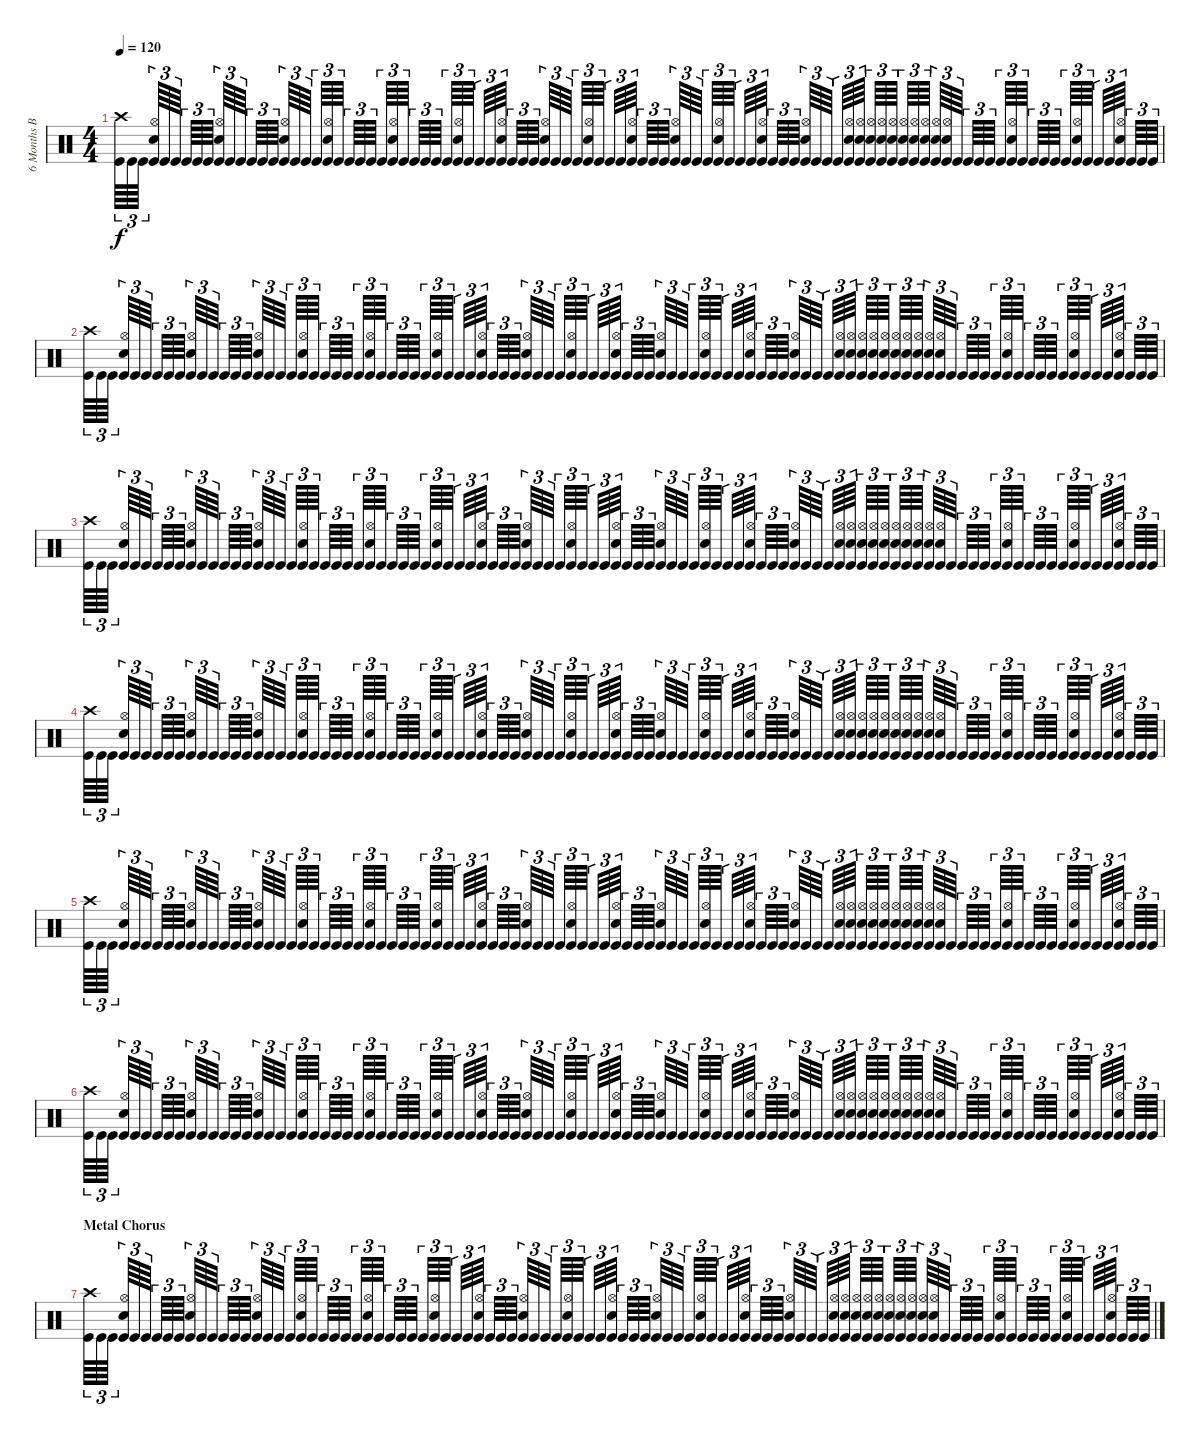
\track ("6 Months Baby" "6 Months B") {instrument percussion}
\staff {score}
\articulation defaults
\ts (4 4)
\tempo 120
\clef neutral
\ks c
("Crash high (hit)" "Kick (hit)").64{tu (3 2) dy f} "Kick (hit)".64{tu (3 2)} "Kick (hit)".64{tu (3 2)} ("Hi-Hat (open)" "Snare (hit) 2" "Kick (hit)").64{tu (3 2)} "Kick (hit)".64{tu (3 2)} "Kick (hit)".64{tu (3 2)} "Kick (hit)".64{tu (3 2)} "Kick (hit)".64{tu (3 2)} "Kick (hit)".64{tu (3 2)} ("Hi-Hat (open)" "Snare (hit) 2" "Kick (hit)").64{tu (3 2)} "Kick (hit)".64{tu (3 2)} "Kick (hit)".64{tu (3 2)} "Kick (hit)".64{tu (3 2)} "Kick (hit)".64{tu (3 2)} "Kick (hit)".64{tu (3 2)} ("Hi-Hat (open)" "Snare (hit) 2" "Kick (hit)").64{tu (3 2)} "Kick (hit)".64{tu (3 2)} "Kick (hit)".64{tu (3 2)} "Kick (hit)".64{tu (3 2)} ("Hi-Hat (open)" "Snare (hit) 2" "Kick (hit)").64{tu (3 2)} "Kick (hit)".64{tu (3 2)} "Kick (hit)".64{tu (3 2)} "Kick (hit)".64{tu (3 2)} "Kick (hit)".64{tu (3 2)} "Kick (hit)".64{tu (3 2)} ("Hi-Hat (open)" "Snare (hit) 2" "Kick (hit)").64{tu (3 2)} "Kick (hit)".64{tu (3 2)} "Kick (hit)".64{tu (3 2)} "Kick (hit)".64{tu (3 2)} "Kick (hit)".64{tu (3 2)} "Kick (hit)".64{tu (3 2)} ("Hi-Hat (open)" "Snare (hit) 2" "Kick (hit)").64{tu (3 2)} "Kick (hit)".64{tu (3 2)} "Kick (hit)".64{tu (3 2)} "Kick (hit)".64{tu (3 2)} ("Hi-Hat (open)" "Snare (hit) 2" "Kick (hit)").64{tu (3 2)} "Kick (hit)".64{tu (3 2)} "Kick (hit)".64{tu (3 2)} "Kick (hit)".64{tu (3 2)} ("Hi-Hat (open)" "Snare (hit) 2" "Kick (hit)").64{tu (3 2)} "Kick (hit)".64{tu (3 2)} "Kick (hit)".64{tu (3 2)} "Kick (hit)".64{tu (3 2)} ("Hi-Hat (open)" "Snare (hit) 2" "Kick (hit)").64{tu (3 2)} "Kick (hit)".64{tu (3 2)} "Kick (hit)".64{tu (3 2)} "Kick (hit)".64{tu (3 2)} ("Hi-Hat (open)" "Snare (hit) 2" "Kick (hit)").64{tu (3 2)} "Kick (hit)".64{tu (3 2)} "Kick (hit)".64{tu (3 2)} "Kick (hit)".64{tu (3 2)} ("Hi-Hat (open)" "Snare (hit) 2" "Kick (hit)").64{tu (3 2)} "Kick (hit)".64{tu (3 2)} "Kick (hit)".64{tu (3 2)} "Kick (hit)".64{tu (3 2)} ("Hi-Hat (open)" "Snare (hit) 2" "Kick (hit)").64{tu (3 2)} "Kick (hit)".64{tu (3 2)} "Kick (hit)".64{tu (3 2)} "Kick (hit)".64{tu (3 2)} ("Hi-Hat (open)" "Snare (hit) 2" "Kick (hit)").64{tu (3 2)} "Kick (hit)".64{tu (3 2)} "Kick (hit)".64{tu (3 2)} "Kick (hit)".64{tu (3 2)} ("Hi-Hat (open)" "Snare (hit) 2" "Kick (hit)").64{tu (3 2)} "Kick (hit)".64{tu (3 2)} "Kick (hit)".64{tu (3 2)} "Kick (hit)".64{tu (3 2)} ("Hi-Hat (open)" "Snare (hit) 2" "Kick (hit)").64{tu (3 2)} ("Hi-Hat (open)" "Snare (hit) 2" "Kick (hit)").64{tu (3 2)} ("Hi-Hat (open)" "Snare (hit) 2" "Kick (hit)").64{tu (3 2)} ("Hi-Hat (open)" "Snare (hit) 2" "Kick (hit)").64{tu (3 2)} ("Hi-Hat (open)" "Snare (hit) 2" "Kick (hit)").64{tu (3 2)} ("Hi-Hat (open)" "Snare (hit) 2" "Kick (hit)").64{tu (3 2)} ("Hi-Hat (open)" "Snare (hit) 2" "Kick (hit)").64{tu (3 2)} ("Hi-Hat (open)" "Snare (hit) 2" "Kick (hit)").64{tu (3 2)} ("Hi-Hat (open)" "Snare (hit) 2" "Kick (hit)").64{tu (3 2)} ("Hi-Hat (open)" "Snare (hit) 2" "Kick (hit)").64{tu (3 2)} "Kick (hit)".64{tu (3 2)} "Kick (hit)".64{tu (3 2)} "Kick (hit)".64{tu (3 2)} "Kick (hit)".64{tu (3 2)} "Kick (hit)".64{tu (3 2)} ("Hi-Hat (open)" "Snare (hit) 2" "Kick (hit)").64{tu (3 2)} "Kick (hit)".64{tu (3 2)} "Kick (hit)".64{tu (3 2)} "Kick (hit)".64{tu (3 2)} "Kick (hit)".64{tu (3 2)} "Kick (hit)".64{tu (3 2)} ("Hi-Hat (open)" "Snare (hit) 2" "Kick (hit)").64{tu (3 2)} "Kick (hit)".64{tu (3 2)} "Kick (hit)".64{tu (3 2)} "Kick (hit)".64{tu (3 2)} ("Hi-Hat (open)" "Snare (hit) 2" "Kick (hit)").64{tu (3 2)} "Kick (hit)".64{tu (3 2)} "Kick (hit)".64{tu (3 2)} "Kick (hit)".64{tu (3 2)} |
("Crash high (hit)" "Kick (hit)").64{tu (3 2)} "Kick (hit)".64{tu (3 2)} "Kick (hit)".64{tu (3 2)} ("Hi-Hat (open)" "Snare (hit) 2" "Kick (hit)").64{tu (3 2)} "Kick (hit)".64{tu (3 2)} "Kick (hit)".64{tu (3 2)} "Kick (hit)".64{tu (3 2)} "Kick (hit)".64{tu (3 2)} "Kick (hit)".64{tu (3 2)} ("Hi-Hat (open)" "Snare (hit) 2" "Kick (hit)").64{tu (3 2)} "Kick (hit)".64{tu (3 2)} "Kick (hit)".64{tu (3 2)} "Kick (hit)".64{tu (3 2)} "Kick (hit)".64{tu (3 2)} "Kick (hit)".64{tu (3 2)} ("Hi-Hat (open)" "Snare (hit) 2" "Kick (hit)").64{tu (3 2)} "Kick (hit)".64{tu (3 2)} "Kick (hit)".64{tu (3 2)} "Kick (hit)".64{tu (3 2)} ("Hi-Hat (open)" "Snare (hit) 2" "Kick (hit)").64{tu (3 2)} "Kick (hit)".64{tu (3 2)} "Kick (hit)".64{tu (3 2)} "Kick (hit)".64{tu (3 2)} "Kick (hit)".64{tu (3 2)} "Kick (hit)".64{tu (3 2)} ("Hi-Hat (open)" "Snare (hit) 2" "Kick (hit)").64{tu (3 2)} "Kick (hit)".64{tu (3 2)} "Kick (hit)".64{tu (3 2)} "Kick (hit)".64{tu (3 2)} "Kick (hit)".64{tu (3 2)} "Kick (hit)".64{tu (3 2)} ("Hi-Hat (open)" "Snare (hit) 2" "Kick (hit)").64{tu (3 2)} "Kick (hit)".64{tu (3 2)} "Kick (hit)".64{tu (3 2)} "Kick (hit)".64{tu (3 2)} ("Hi-Hat (open)" "Snare (hit) 2" "Kick (hit)").64{tu (3 2)} "Kick (hit)".64{tu (3 2)} "Kick (hit)".64{tu (3 2)} "Kick (hit)".64{tu (3 2)} ("Hi-Hat (open)" "Snare (hit) 2" "Kick (hit)").64{tu (3 2)} "Kick (hit)".64{tu (3 2)} "Kick (hit)".64{tu (3 2)} "Kick (hit)".64{tu (3 2)} ("Hi-Hat (open)" "Snare (hit) 2" "Kick (hit)").64{tu (3 2)} "Kick (hit)".64{tu (3 2)} "Kick (hit)".64{tu (3 2)} "Kick (hit)".64{tu (3 2)} ("Hi-Hat (open)" "Snare (hit) 2" "Kick (hit)").64{tu (3 2)} "Kick (hit)".64{tu (3 2)} "Kick (hit)".64{tu (3 2)} "Kick (hit)".64{tu (3 2)} ("Hi-Hat (open)" "Snare (hit) 2" "Kick (hit)").64{tu (3 2)} "Kick (hit)".64{tu (3 2)} "Kick (hit)".64{tu (3 2)} "Kick (hit)".64{tu (3 2)} ("Hi-Hat (open)" "Snare (hit) 2" "Kick (hit)").64{tu (3 2)} "Kick (hit)".64{tu (3 2)} "Kick (hit)".64{tu (3 2)} "Kick (hit)".64{tu (3 2)} ("Hi-Hat (open)" "Snare (hit) 2" "Kick (hit)").64{tu (3 2)} "Kick (hit)".64{tu (3 2)} "Kick (hit)".64{tu (3 2)} "Kick (hit)".64{tu (3 2)} ("Hi-Hat (open)" "Snare (hit) 2" "Kick (hit)").64{tu (3 2)} "Kick (hit)".64{tu (3 2)} "Kick (hit)".64{tu (3 2)} "Kick (hit)".64{tu (3 2)} ("Hi-Hat (open)" "Snare (hit) 2" "Kick (hit)").64{tu (3 2)} ("Hi-Hat (open)" "Snare (hit) 2" "Kick (hit)").64{tu (3 2)} ("Hi-Hat (open)" "Snare (hit) 2" "Kick (hit)").64{tu (3 2)} ("Hi-Hat (open)" "Snare (hit) 2" "Kick (hit)").64{tu (3 2)} ("Hi-Hat (open)" "Snare (hit) 2" "Kick (hit)").64{tu (3 2)} ("Hi-Hat (open)" "Snare (hit) 2" "Kick (hit)").64{tu (3 2)} ("Hi-Hat (open)" "Snare (hit) 2" "Kick (hit)").64{tu (3 2)} ("Hi-Hat (open)" "Snare (hit) 2" "Kick (hit)").64{tu (3 2)} ("Hi-Hat (open)" "Snare (hit) 2" "Kick (hit)").64{tu (3 2)} ("Hi-Hat (open)" "Snare (hit) 2" "Kick (hit)").64{tu (3 2)} "Kick (hit)".64{tu (3 2)} "Kick (hit)".64{tu (3 2)} "Kick (hit)".64{tu (3 2)} "Kick (hit)".64{tu (3 2)} "Kick (hit)".64{tu (3 2)} ("Hi-Hat (open)" "Snare (hit) 2" "Kick (hit)").64{tu (3 2)} "Kick (hit)".64{tu (3 2)} "Kick (hit)".64{tu (3 2)} "Kick (hit)".64{tu (3 2)} "Kick (hit)".64{tu (3 2)} "Kick (hit)".64{tu (3 2)} ("Hi-Hat (open)" "Snare (hit) 2" "Kick (hit)").64{tu (3 2)} "Kick (hit)".64{tu (3 2)} "Kick (hit)".64{tu (3 2)} "Kick (hit)".64{tu (3 2)} ("Hi-Hat (open)" "Snare (hit) 2" "Kick (hit)").64{tu (3 2)} "Kick (hit)".64{tu (3 2)} "Kick (hit)".64{tu (3 2)} "Kick (hit)".64{tu (3 2)} |
("Crash high (hit)" "Kick (hit)").64{tu (3 2)} "Kick (hit)".64{tu (3 2)} "Kick (hit)".64{tu (3 2)} ("Hi-Hat (open)" "Snare (hit) 2" "Kick (hit)").64{tu (3 2)} "Kick (hit)".64{tu (3 2)} "Kick (hit)".64{tu (3 2)} "Kick (hit)".64{tu (3 2)} "Kick (hit)".64{tu (3 2)} "Kick (hit)".64{tu (3 2)} ("Hi-Hat (open)" "Snare (hit) 2" "Kick (hit)").64{tu (3 2)} "Kick (hit)".64{tu (3 2)} "Kick (hit)".64{tu (3 2)} "Kick (hit)".64{tu (3 2)} "Kick (hit)".64{tu (3 2)} "Kick (hit)".64{tu (3 2)} ("Hi-Hat (open)" "Snare (hit) 2" "Kick (hit)").64{tu (3 2)} "Kick (hit)".64{tu (3 2)} "Kick (hit)".64{tu (3 2)} "Kick (hit)".64{tu (3 2)} ("Hi-Hat (open)" "Snare (hit) 2" "Kick (hit)").64{tu (3 2)} "Kick (hit)".64{tu (3 2)} "Kick (hit)".64{tu (3 2)} "Kick (hit)".64{tu (3 2)} "Kick (hit)".64{tu (3 2)} "Kick (hit)".64{tu (3 2)} ("Hi-Hat (open)" "Snare (hit) 2" "Kick (hit)").64{tu (3 2)} "Kick (hit)".64{tu (3 2)} "Kick (hit)".64{tu (3 2)} "Kick (hit)".64{tu (3 2)} "Kick (hit)".64{tu (3 2)} "Kick (hit)".64{tu (3 2)} ("Hi-Hat (open)" "Snare (hit) 2" "Kick (hit)").64{tu (3 2)} "Kick (hit)".64{tu (3 2)} "Kick (hit)".64{tu (3 2)} "Kick (hit)".64{tu (3 2)} ("Hi-Hat (open)" "Snare (hit) 2" "Kick (hit)").64{tu (3 2)} "Kick (hit)".64{tu (3 2)} "Kick (hit)".64{tu (3 2)} "Kick (hit)".64{tu (3 2)} ("Hi-Hat (open)" "Snare (hit) 2" "Kick (hit)").64{tu (3 2)} "Kick (hit)".64{tu (3 2)} "Kick (hit)".64{tu (3 2)} "Kick (hit)".64{tu (3 2)} ("Hi-Hat (open)" "Snare (hit) 2" "Kick (hit)").64{tu (3 2)} "Kick (hit)".64{tu (3 2)} "Kick (hit)".64{tu (3 2)} "Kick (hit)".64{tu (3 2)} ("Hi-Hat (open)" "Snare (hit) 2" "Kick (hit)").64{tu (3 2)} "Kick (hit)".64{tu (3 2)} "Kick (hit)".64{tu (3 2)} "Kick (hit)".64{tu (3 2)} ("Hi-Hat (open)" "Snare (hit) 2" "Kick (hit)").64{tu (3 2)} "Kick (hit)".64{tu (3 2)} "Kick (hit)".64{tu (3 2)} "Kick (hit)".64{tu (3 2)} ("Hi-Hat (open)" "Snare (hit) 2" "Kick (hit)").64{tu (3 2)} "Kick (hit)".64{tu (3 2)} "Kick (hit)".64{tu (3 2)} "Kick (hit)".64{tu (3 2)} ("Hi-Hat (open)" "Snare (hit) 2" "Kick (hit)").64{tu (3 2)} "Kick (hit)".64{tu (3 2)} "Kick (hit)".64{tu (3 2)} "Kick (hit)".64{tu (3 2)} ("Hi-Hat (open)" "Snare (hit) 2" "Kick (hit)").64{tu (3 2)} "Kick (hit)".64{tu (3 2)} "Kick (hit)".64{tu (3 2)} "Kick (hit)".64{tu (3 2)} ("Hi-Hat (open)" "Snare (hit) 2" "Kick (hit)").64{tu (3 2)} ("Hi-Hat (open)" "Snare (hit) 2" "Kick (hit)").64{tu (3 2)} ("Hi-Hat (open)" "Snare (hit) 2" "Kick (hit)").64{tu (3 2)} ("Hi-Hat (open)" "Snare (hit) 2" "Kick (hit)").64{tu (3 2)} ("Hi-Hat (open)" "Snare (hit) 2" "Kick (hit)").64{tu (3 2)} ("Hi-Hat (open)" "Snare (hit) 2" "Kick (hit)").64{tu (3 2)} ("Hi-Hat (open)" "Snare (hit) 2" "Kick (hit)").64{tu (3 2)} ("Hi-Hat (open)" "Snare (hit) 2" "Kick (hit)").64{tu (3 2)} ("Hi-Hat (open)" "Snare (hit) 2" "Kick (hit)").64{tu (3 2)} ("Hi-Hat (open)" "Snare (hit) 2" "Kick (hit)").64{tu (3 2)} "Kick (hit)".64{tu (3 2)} "Kick (hit)".64{tu (3 2)} "Kick (hit)".64{tu (3 2)} "Kick (hit)".64{tu (3 2)} "Kick (hit)".64{tu (3 2)} ("Hi-Hat (open)" "Snare (hit) 2" "Kick (hit)").64{tu (3 2)} "Kick (hit)".64{tu (3 2)} "Kick (hit)".64{tu (3 2)} "Kick (hit)".64{tu (3 2)} "Kick (hit)".64{tu (3 2)} "Kick (hit)".64{tu (3 2)} ("Hi-Hat (open)" "Snare (hit) 2" "Kick (hit)").64{tu (3 2)} "Kick (hit)".64{tu (3 2)} "Kick (hit)".64{tu (3 2)} "Kick (hit)".64{tu (3 2)} ("Hi-Hat (open)" "Snare (hit) 2" "Kick (hit)").64{tu (3 2)} "Kick (hit)".64{tu (3 2)} "Kick (hit)".64{tu (3 2)} "Kick (hit)".64{tu (3 2)} |
("Crash high (hit)" "Kick (hit)").64{tu (3 2)} "Kick (hit)".64{tu (3 2)} "Kick (hit)".64{tu (3 2)} ("Hi-Hat (open)" "Snare (hit) 2" "Kick (hit)").64{tu (3 2)} "Kick (hit)".64{tu (3 2)} "Kick (hit)".64{tu (3 2)} "Kick (hit)".64{tu (3 2)} "Kick (hit)".64{tu (3 2)} "Kick (hit)".64{tu (3 2)} ("Hi-Hat (open)" "Snare (hit) 2" "Kick (hit)").64{tu (3 2)} "Kick (hit)".64{tu (3 2)} "Kick (hit)".64{tu (3 2)} "Kick (hit)".64{tu (3 2)} "Kick (hit)".64{tu (3 2)} "Kick (hit)".64{tu (3 2)} ("Hi-Hat (open)" "Snare (hit) 2" "Kick (hit)").64{tu (3 2)} "Kick (hit)".64{tu (3 2)} "Kick (hit)".64{tu (3 2)} "Kick (hit)".64{tu (3 2)} ("Hi-Hat (open)" "Snare (hit) 2" "Kick (hit)").64{tu (3 2)} "Kick (hit)".64{tu (3 2)} "Kick (hit)".64{tu (3 2)} "Kick (hit)".64{tu (3 2)} "Kick (hit)".64{tu (3 2)} "Kick (hit)".64{tu (3 2)} ("Hi-Hat (open)" "Snare (hit) 2" "Kick (hit)").64{tu (3 2)} "Kick (hit)".64{tu (3 2)} "Kick (hit)".64{tu (3 2)} "Kick (hit)".64{tu (3 2)} "Kick (hit)".64{tu (3 2)} "Kick (hit)".64{tu (3 2)} ("Hi-Hat (open)" "Snare (hit) 2" "Kick (hit)").64{tu (3 2)} "Kick (hit)".64{tu (3 2)} "Kick (hit)".64{tu (3 2)} "Kick (hit)".64{tu (3 2)} ("Hi-Hat (open)" "Snare (hit) 2" "Kick (hit)").64{tu (3 2)} "Kick (hit)".64{tu (3 2)} "Kick (hit)".64{tu (3 2)} "Kick (hit)".64{tu (3 2)} ("Hi-Hat (open)" "Snare (hit) 2" "Kick (hit)").64{tu (3 2)} "Kick (hit)".64{tu (3 2)} "Kick (hit)".64{tu (3 2)} "Kick (hit)".64{tu (3 2)} ("Hi-Hat (open)" "Snare (hit) 2" "Kick (hit)").64{tu (3 2)} "Kick (hit)".64{tu (3 2)} "Kick (hit)".64{tu (3 2)} "Kick (hit)".64{tu (3 2)} ("Hi-Hat (open)" "Snare (hit) 2" "Kick (hit)").64{tu (3 2)} "Kick (hit)".64{tu (3 2)} "Kick (hit)".64{tu (3 2)} "Kick (hit)".64{tu (3 2)} ("Hi-Hat (open)" "Snare (hit) 2" "Kick (hit)").64{tu (3 2)} "Kick (hit)".64{tu (3 2)} "Kick (hit)".64{tu (3 2)} "Kick (hit)".64{tu (3 2)} ("Hi-Hat (open)" "Snare (hit) 2" "Kick (hit)").64{tu (3 2)} "Kick (hit)".64{tu (3 2)} "Kick (hit)".64{tu (3 2)} "Kick (hit)".64{tu (3 2)} ("Hi-Hat (open)" "Snare (hit) 2" "Kick (hit)").64{tu (3 2)} "Kick (hit)".64{tu (3 2)} "Kick (hit)".64{tu (3 2)} "Kick (hit)".64{tu (3 2)} ("Hi-Hat (open)" "Snare (hit) 2" "Kick (hit)").64{tu (3 2)} "Kick (hit)".64{tu (3 2)} "Kick (hit)".64{tu (3 2)} "Kick (hit)".64{tu (3 2)} ("Hi-Hat (open)" "Snare (hit) 2" "Kick (hit)").64{tu (3 2)} ("Hi-Hat (open)" "Snare (hit) 2" "Kick (hit)").64{tu (3 2)} ("Hi-Hat (open)" "Snare (hit) 2" "Kick (hit)").64{tu (3 2)} ("Hi-Hat (open)" "Snare (hit) 2" "Kick (hit)").64{tu (3 2)} ("Hi-Hat (open)" "Snare (hit) 2" "Kick (hit)").64{tu (3 2)} ("Hi-Hat (open)" "Snare (hit) 2" "Kick (hit)").64{tu (3 2)} ("Hi-Hat (open)" "Snare (hit) 2" "Kick (hit)").64{tu (3 2)} ("Hi-Hat (open)" "Snare (hit) 2" "Kick (hit)").64{tu (3 2)} ("Hi-Hat (open)" "Snare (hit) 2" "Kick (hit)").64{tu (3 2)} ("Hi-Hat (open)" "Snare (hit) 2" "Kick (hit)").64{tu (3 2)} "Kick (hit)".64{tu (3 2)} "Kick (hit)".64{tu (3 2)} "Kick (hit)".64{tu (3 2)} "Kick (hit)".64{tu (3 2)} "Kick (hit)".64{tu (3 2)} ("Hi-Hat (open)" "Snare (hit) 2" "Kick (hit)").64{tu (3 2)} "Kick (hit)".64{tu (3 2)} "Kick (hit)".64{tu (3 2)} "Kick (hit)".64{tu (3 2)} "Kick (hit)".64{tu (3 2)} "Kick (hit)".64{tu (3 2)} ("Hi-Hat (open)" "Snare (hit) 2" "Kick (hit)").64{tu (3 2)} "Kick (hit)".64{tu (3 2)} "Kick (hit)".64{tu (3 2)} "Kick (hit)".64{tu (3 2)} ("Hi-Hat (open)" "Snare (hit) 2" "Kick (hit)").64{tu (3 2)} "Kick (hit)".64{tu (3 2)} "Kick (hit)".64{tu (3 2)} "Kick (hit)".64{tu (3 2)} |
("Crash high (hit)" "Kick (hit)").64{tu (3 2)} "Kick (hit)".64{tu (3 2)} "Kick (hit)".64{tu (3 2)} ("Hi-Hat (open)" "Snare (hit) 2" "Kick (hit)").64{tu (3 2)} "Kick (hit)".64{tu (3 2)} "Kick (hit)".64{tu (3 2)} "Kick (hit)".64{tu (3 2)} "Kick (hit)".64{tu (3 2)} "Kick (hit)".64{tu (3 2)} ("Hi-Hat (open)" "Snare (hit) 2" "Kick (hit)").64{tu (3 2)} "Kick (hit)".64{tu (3 2)} "Kick (hit)".64{tu (3 2)} "Kick (hit)".64{tu (3 2)} "Kick (hit)".64{tu (3 2)} "Kick (hit)".64{tu (3 2)} ("Hi-Hat (open)" "Snare (hit) 2" "Kick (hit)").64{tu (3 2)} "Kick (hit)".64{tu (3 2)} "Kick (hit)".64{tu (3 2)} "Kick (hit)".64{tu (3 2)} ("Hi-Hat (open)" "Snare (hit) 2" "Kick (hit)").64{tu (3 2)} "Kick (hit)".64{tu (3 2)} "Kick (hit)".64{tu (3 2)} "Kick (hit)".64{tu (3 2)} "Kick (hit)".64{tu (3 2)} "Kick (hit)".64{tu (3 2)} ("Hi-Hat (open)" "Snare (hit) 2" "Kick (hit)").64{tu (3 2)} "Kick (hit)".64{tu (3 2)} "Kick (hit)".64{tu (3 2)} "Kick (hit)".64{tu (3 2)} "Kick (hit)".64{tu (3 2)} "Kick (hit)".64{tu (3 2)} ("Hi-Hat (open)" "Snare (hit) 2" "Kick (hit)").64{tu (3 2)} "Kick (hit)".64{tu (3 2)} "Kick (hit)".64{tu (3 2)} "Kick (hit)".64{tu (3 2)} ("Hi-Hat (open)" "Snare (hit) 2" "Kick (hit)").64{tu (3 2)} "Kick (hit)".64{tu (3 2)} "Kick (hit)".64{tu (3 2)} "Kick (hit)".64{tu (3 2)} ("Hi-Hat (open)" "Snare (hit) 2" "Kick (hit)").64{tu (3 2)} "Kick (hit)".64{tu (3 2)} "Kick (hit)".64{tu (3 2)} "Kick (hit)".64{tu (3 2)} ("Hi-Hat (open)" "Snare (hit) 2" "Kick (hit)").64{tu (3 2)} "Kick (hit)".64{tu (3 2)} "Kick (hit)".64{tu (3 2)} "Kick (hit)".64{tu (3 2)} ("Hi-Hat (open)" "Snare (hit) 2" "Kick (hit)").64{tu (3 2)} "Kick (hit)".64{tu (3 2)} "Kick (hit)".64{tu (3 2)} "Kick (hit)".64{tu (3 2)} ("Hi-Hat (open)" "Snare (hit) 2" "Kick (hit)").64{tu (3 2)} "Kick (hit)".64{tu (3 2)} "Kick (hit)".64{tu (3 2)} "Kick (hit)".64{tu (3 2)} ("Hi-Hat (open)" "Snare (hit) 2" "Kick (hit)").64{tu (3 2)} "Kick (hit)".64{tu (3 2)} "Kick (hit)".64{tu (3 2)} "Kick (hit)".64{tu (3 2)} ("Hi-Hat (open)" "Snare (hit) 2" "Kick (hit)").64{tu (3 2)} "Kick (hit)".64{tu (3 2)} "Kick (hit)".64{tu (3 2)} "Kick (hit)".64{tu (3 2)} ("Hi-Hat (open)" "Snare (hit) 2" "Kick (hit)").64{tu (3 2)} "Kick (hit)".64{tu (3 2)} "Kick (hit)".64{tu (3 2)} "Kick (hit)".64{tu (3 2)} ("Hi-Hat (open)" "Snare (hit) 2" "Kick (hit)").64{tu (3 2)} ("Hi-Hat (open)" "Snare (hit) 2" "Kick (hit)").64{tu (3 2)} ("Hi-Hat (open)" "Snare (hit) 2" "Kick (hit)").64{tu (3 2)} ("Hi-Hat (open)" "Snare (hit) 2" "Kick (hit)").64{tu (3 2)} ("Hi-Hat (open)" "Snare (hit) 2" "Kick (hit)").64{tu (3 2)} ("Hi-Hat (open)" "Snare (hit) 2" "Kick (hit)").64{tu (3 2)} ("Hi-Hat (open)" "Snare (hit) 2" "Kick (hit)").64{tu (3 2)} ("Hi-Hat (open)" "Snare (hit) 2" "Kick (hit)").64{tu (3 2)} ("Hi-Hat (open)" "Snare (hit) 2" "Kick (hit)").64{tu (3 2)} ("Hi-Hat (open)" "Snare (hit) 2" "Kick (hit)").64{tu (3 2)} "Kick (hit)".64{tu (3 2)} "Kick (hit)".64{tu (3 2)} "Kick (hit)".64{tu (3 2)} "Kick (hit)".64{tu (3 2)} "Kick (hit)".64{tu (3 2)} ("Hi-Hat (open)" "Snare (hit) 2" "Kick (hit)").64{tu (3 2)} "Kick (hit)".64{tu (3 2)} "Kick (hit)".64{tu (3 2)} "Kick (hit)".64{tu (3 2)} "Kick (hit)".64{tu (3 2)} "Kick (hit)".64{tu (3 2)} ("Hi-Hat (open)" "Snare (hit) 2" "Kick (hit)").64{tu (3 2)} "Kick (hit)".64{tu (3 2)} "Kick (hit)".64{tu (3 2)} "Kick (hit)".64{tu (3 2)} ("Hi-Hat (open)" "Snare (hit) 2" "Kick (hit)").64{tu (3 2)} "Kick (hit)".64{tu (3 2)} "Kick (hit)".64{tu (3 2)} "Kick (hit)".64{tu (3 2)} |
("Crash high (hit)" "Kick (hit)").64{tu (3 2)} "Kick (hit)".64{tu (3 2)} "Kick (hit)".64{tu (3 2)} ("Hi-Hat (open)" "Snare (hit) 2" "Kick (hit)").64{tu (3 2)} "Kick (hit)".64{tu (3 2)} "Kick (hit)".64{tu (3 2)} "Kick (hit)".64{tu (3 2)} "Kick (hit)".64{tu (3 2)} "Kick (hit)".64{tu (3 2)} ("Hi-Hat (open)" "Snare (hit) 2" "Kick (hit)").64{tu (3 2)} "Kick (hit)".64{tu (3 2)} "Kick (hit)".64{tu (3 2)} "Kick (hit)".64{tu (3 2)} "Kick (hit)".64{tu (3 2)} "Kick (hit)".64{tu (3 2)} ("Hi-Hat (open)" "Snare (hit) 2" "Kick (hit)").64{tu (3 2)} "Kick (hit)".64{tu (3 2)} "Kick (hit)".64{tu (3 2)} "Kick (hit)".64{tu (3 2)} ("Hi-Hat (open)" "Snare (hit) 2" "Kick (hit)").64{tu (3 2)} "Kick (hit)".64{tu (3 2)} "Kick (hit)".64{tu (3 2)} "Kick (hit)".64{tu (3 2)} "Kick (hit)".64{tu (3 2)} "Kick (hit)".64{tu (3 2)} ("Hi-Hat (open)" "Snare (hit) 2" "Kick (hit)").64{tu (3 2)} "Kick (hit)".64{tu (3 2)} "Kick (hit)".64{tu (3 2)} "Kick (hit)".64{tu (3 2)} "Kick (hit)".64{tu (3 2)} "Kick (hit)".64{tu (3 2)} ("Hi-Hat (open)" "Snare (hit) 2" "Kick (hit)").64{tu (3 2)} "Kick (hit)".64{tu (3 2)} "Kick (hit)".64{tu (3 2)} "Kick (hit)".64{tu (3 2)} ("Hi-Hat (open)" "Snare (hit) 2" "Kick (hit)").64{tu (3 2)} "Kick (hit)".64{tu (3 2)} "Kick (hit)".64{tu (3 2)} "Kick (hit)".64{tu (3 2)} ("Hi-Hat (open)" "Snare (hit) 2" "Kick (hit)").64{tu (3 2)} "Kick (hit)".64{tu (3 2)} "Kick (hit)".64{tu (3 2)} "Kick (hit)".64{tu (3 2)} ("Hi-Hat (open)" "Snare (hit) 2" "Kick (hit)").64{tu (3 2)} "Kick (hit)".64{tu (3 2)} "Kick (hit)".64{tu (3 2)} "Kick (hit)".64{tu (3 2)} ("Hi-Hat (open)" "Snare (hit) 2" "Kick (hit)").64{tu (3 2)} "Kick (hit)".64{tu (3 2)} "Kick (hit)".64{tu (3 2)} "Kick (hit)".64{tu (3 2)} ("Hi-Hat (open)" "Snare (hit) 2" "Kick (hit)").64{tu (3 2)} "Kick (hit)".64{tu (3 2)} "Kick (hit)".64{tu (3 2)} "Kick (hit)".64{tu (3 2)} ("Hi-Hat (open)" "Snare (hit) 2" "Kick (hit)").64{tu (3 2)} "Kick (hit)".64{tu (3 2)} "Kick (hit)".64{tu (3 2)} "Kick (hit)".64{tu (3 2)} ("Hi-Hat (open)" "Snare (hit) 2" "Kick (hit)").64{tu (3 2)} "Kick (hit)".64{tu (3 2)} "Kick (hit)".64{tu (3 2)} "Kick (hit)".64{tu (3 2)} ("Hi-Hat (open)" "Snare (hit) 2" "Kick (hit)").64{tu (3 2)} "Kick (hit)".64{tu (3 2)} "Kick (hit)".64{tu (3 2)} "Kick (hit)".64{tu (3 2)} ("Hi-Hat (open)" "Snare (hit) 2" "Kick (hit)").64{tu (3 2)} ("Hi-Hat (open)" "Snare (hit) 2" "Kick (hit)").64{tu (3 2)} ("Hi-Hat (open)" "Snare (hit) 2" "Kick (hit)").64{tu (3 2)} ("Hi-Hat (open)" "Snare (hit) 2" "Kick (hit)").64{tu (3 2)} ("Hi-Hat (open)" "Snare (hit) 2" "Kick (hit)").64{tu (3 2)} ("Hi-Hat (open)" "Snare (hit) 2" "Kick (hit)").64{tu (3 2)} ("Hi-Hat (open)" "Snare (hit) 2" "Kick (hit)").64{tu (3 2)} ("Hi-Hat (open)" "Snare (hit) 2" "Kick (hit)").64{tu (3 2)} ("Hi-Hat (open)" "Snare (hit) 2" "Kick (hit)").64{tu (3 2)} ("Hi-Hat (open)" "Snare (hit) 2" "Kick (hit)").64{tu (3 2)} "Kick (hit)".64{tu (3 2)} "Kick (hit)".64{tu (3 2)} "Kick (hit)".64{tu (3 2)} "Kick (hit)".64{tu (3 2)} "Kick (hit)".64{tu (3 2)} ("Hi-Hat (open)" "Snare (hit) 2" "Kick (hit)").64{tu (3 2)} "Kick (hit)".64{tu (3 2)} "Kick (hit)".64{tu (3 2)} "Kick (hit)".64{tu (3 2)} "Kick (hit)".64{tu (3 2)} "Kick (hit)".64{tu (3 2)} ("Hi-Hat (open)" "Snare (hit) 2" "Kick (hit)").64{tu (3 2)} "Kick (hit)".64{tu (3 2)} "Kick (hit)".64{tu (3 2)} "Kick (hit)".64{tu (3 2)} ("Hi-Hat (open)" "Snare (hit) 2" "Kick (hit)").64{tu (3 2)} "Kick (hit)".64{tu (3 2)} "Kick (hit)".64{tu (3 2)} "Kick (hit)".64{tu (3 2)} |
\section ("" "Metal Chorus")
("Crash high (hit)" "Kick (hit)").64{tu (3 2)} "Kick (hit)".64{tu (3 2)} "Kick (hit)".64{tu (3 2)} ("Hi-Hat (open)" "Snare (hit) 2" "Kick (hit)").64{tu (3 2)} "Kick (hit)".64{tu (3 2)} "Kick (hit)".64{tu (3 2)} "Kick (hit)".64{tu (3 2)} "Kick (hit)".64{tu (3 2)} "Kick (hit)".64{tu (3 2)} ("Hi-Hat (open)" "Snare (hit) 2" "Kick (hit)").64{tu (3 2)} "Kick (hit)".64{tu (3 2)} "Kick (hit)".64{tu (3 2)} "Kick (hit)".64{tu (3 2)} "Kick (hit)".64{tu (3 2)} "Kick (hit)".64{tu (3 2)} ("Hi-Hat (open)" "Snare (hit) 2" "Kick (hit)").64{tu (3 2)} "Kick (hit)".64{tu (3 2)} "Kick (hit)".64{tu (3 2)} "Kick (hit)".64{tu (3 2)} ("Hi-Hat (open)" "Snare (hit) 2" "Kick (hit)").64{tu (3 2)} "Kick (hit)".64{tu (3 2)} "Kick (hit)".64{tu (3 2)} "Kick (hit)".64{tu (3 2)} "Kick (hit)".64{tu (3 2)} "Kick (hit)".64{tu (3 2)} ("Hi-Hat (open)" "Snare (hit) 2" "Kick (hit)").64{tu (3 2)} "Kick (hit)".64{tu (3 2)} "Kick (hit)".64{tu (3 2)} "Kick (hit)".64{tu (3 2)} "Kick (hit)".64{tu (3 2)} "Kick (hit)".64{tu (3 2)} ("Hi-Hat (open)" "Snare (hit) 2" "Kick (hit)").64{tu (3 2)} "Kick (hit)".64{tu (3 2)} "Kick (hit)".64{tu (3 2)} "Kick (hit)".64{tu (3 2)} ("Hi-Hat (open)" "Snare (hit) 2" "Kick (hit)").64{tu (3 2)} "Kick (hit)".64{tu (3 2)} "Kick (hit)".64{tu (3 2)} "Kick (hit)".64{tu (3 2)} ("Hi-Hat (open)" "Snare (hit) 2" "Kick (hit)").64{tu (3 2)} "Kick (hit)".64{tu (3 2)} "Kick (hit)".64{tu (3 2)} "Kick (hit)".64{tu (3 2)} ("Hi-Hat (open)" "Snare (hit) 2" "Kick (hit)").64{tu (3 2)} "Kick (hit)".64{tu (3 2)} "Kick (hit)".64{tu (3 2)} "Kick (hit)".64{tu (3 2)} ("Hi-Hat (open)" "Snare (hit) 2" "Kick (hit)").64{tu (3 2)} "Kick (hit)".64{tu (3 2)} "Kick (hit)".64{tu (3 2)} "Kick (hit)".64{tu (3 2)} ("Hi-Hat (open)" "Snare (hit) 2" "Kick (hit)").64{tu (3 2)} "Kick (hit)".64{tu (3 2)} "Kick (hit)".64{tu (3 2)} "Kick (hit)".64{tu (3 2)} ("Hi-Hat (open)" "Snare (hit) 2" "Kick (hit)").64{tu (3 2)} "Kick (hit)".64{tu (3 2)} "Kick (hit)".64{tu (3 2)} "Kick (hit)".64{tu (3 2)} ("Hi-Hat (open)" "Snare (hit) 2" "Kick (hit)").64{tu (3 2)} "Kick (hit)".64{tu (3 2)} "Kick (hit)".64{tu (3 2)} "Kick (hit)".64{tu (3 2)} ("Hi-Hat (open)" "Snare (hit) 2" "Kick (hit)").64{tu (3 2)} "Kick (hit)".64{tu (3 2)} "Kick (hit)".64{tu (3 2)} "Kick (hit)".64{tu (3 2)} ("Hi-Hat (open)" "Snare (hit) 2" "Kick (hit)").64{tu (3 2)} ("Hi-Hat (open)" "Snare (hit) 2" "Kick (hit)").64{tu (3 2)} ("Hi-Hat (open)" "Snare (hit) 2" "Kick (hit)").64{tu (3 2)} ("Hi-Hat (open)" "Snare (hit) 2" "Kick (hit)").64{tu (3 2)} ("Hi-Hat (open)" "Snare (hit) 2" "Kick (hit)").64{tu (3 2)} ("Hi-Hat (open)" "Snare (hit) 2" "Kick (hit)").64{tu (3 2)} ("Hi-Hat (open)" "Snare (hit) 2" "Kick (hit)").64{tu (3 2)} ("Hi-Hat (open)" "Snare (hit) 2" "Kick (hit)").64{tu (3 2)} ("Hi-Hat (open)" "Snare (hit) 2" "Kick (hit)").64{tu (3 2)} ("Hi-Hat (open)" "Snare (hit) 2" "Kick (hit)").64{tu (3 2)} "Kick (hit)".64{tu (3 2)} "Kick (hit)".64{tu (3 2)} "Kick (hit)".64{tu (3 2)} "Kick (hit)".64{tu (3 2)} "Kick (hit)".64{tu (3 2)} ("Hi-Hat (open)" "Snare (hit) 2" "Kick (hit)").64{tu (3 2)} "Kick (hit)".64{tu (3 2)} "Kick (hit)".64{tu (3 2)} "Kick (hit)".64{tu (3 2)} "Kick (hit)".64{tu (3 2)} "Kick (hit)".64{tu (3 2)} ("Hi-Hat (open)" "Snare (hit) 2" "Kick (hit)").64{tu (3 2)} "Kick (hit)".64{tu (3 2)} "Kick (hit)".64{tu (3 2)} "Kick (hit)".64{tu (3 2)} ("Hi-Hat (open)" "Snare (hit) 2" "Kick (hit)").64{tu (3 2)} "Kick (hit)".64{tu (3 2)} "Kick (hit)".64{tu (3 2)} "Kick (hit)".64{tu (3 2)}
